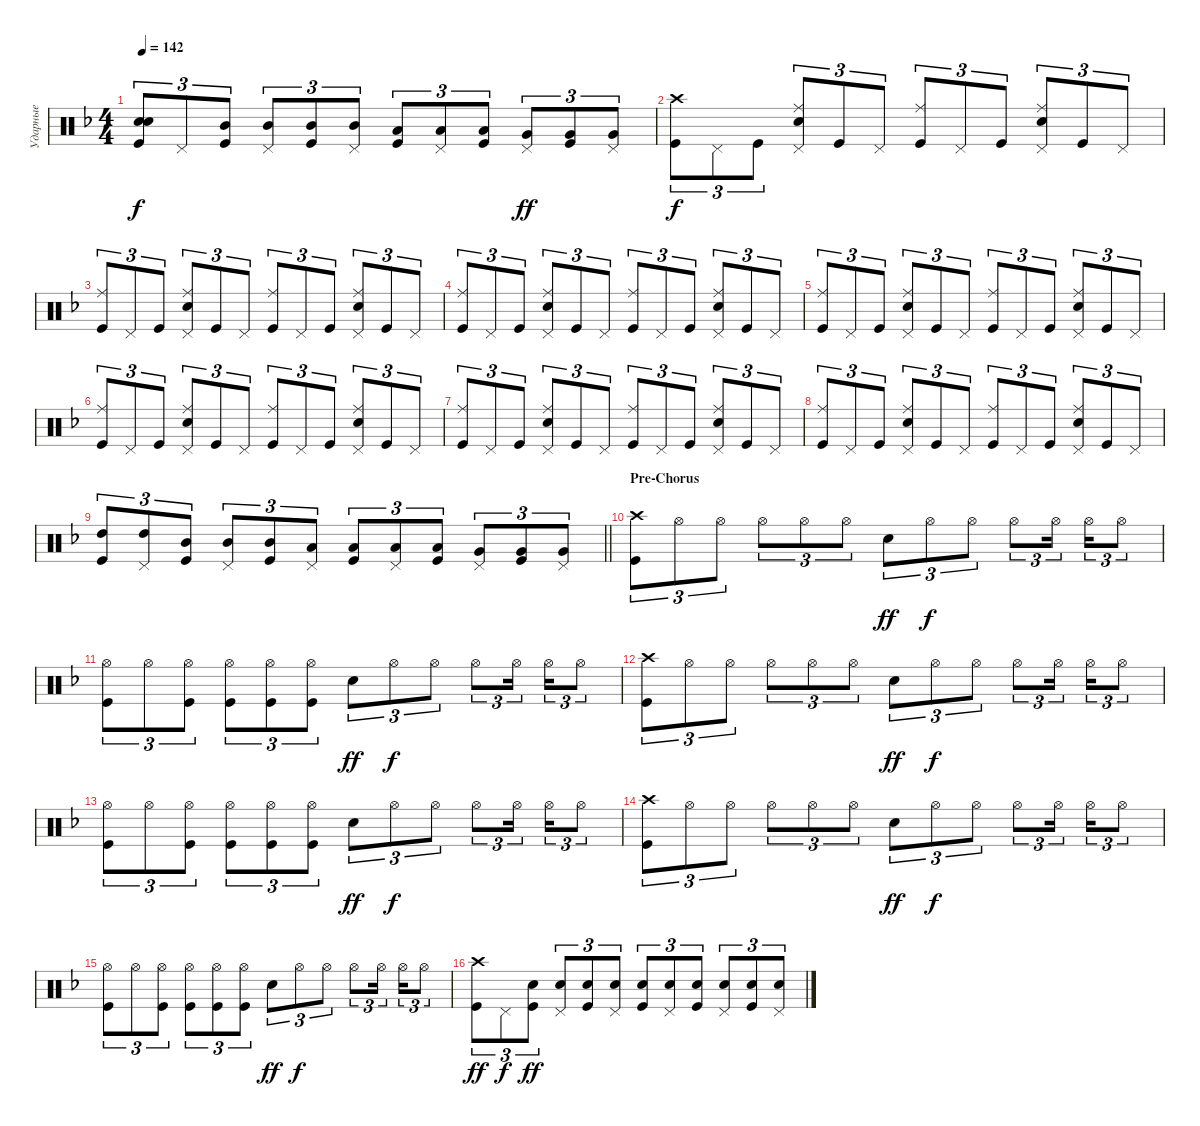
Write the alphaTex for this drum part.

\track ("Ударные" "Ударные") {instrument percussion}
\staff {score}
\articulation defaults
\ts (4 4)
\tempo 142
\clef neutral
\ks dminor
("Snare (hit) 2" "Snare (hit) 2" "Kick (hit)").8{tu (3 2) bd 240 dy f} "Pedal Hi-Hat (hit)".8{tu (3 2)} ("Mid Tom (hit)" "Kick (hit)").8{tu (3 2)} ("Pedal Hi-Hat (hit)" "Mid Tom (hit)").8{tu (3 2)} ("Mid Tom (hit)" "Kick (hit)").8{tu (3 2)} ("Mid Tom (hit)" "Pedal Hi-Hat (hit)").8{tu (3 2)} ("Low Tom (hit)" "Kick (hit)").8{tu (3 2)} ("Low Tom (hit)" "Pedal Hi-Hat (hit)").8{tu (3 2)} ("Low Tom (hit)" "Kick (hit)").8{tu (3 2)} ("Very Low Tom (hit)" "Pedal Hi-Hat (hit)").8{tu (3 2) dy ff} ("Very Low Tom (hit)" "Kick (hit)").8{tu (3 2)} ("Very Low Tom (hit)" "Pedal Hi-Hat (hit)").8{tu (3 2)} |
("Kick (hit)" "Crash high (hit)").8{tu (3 2) dy f} "Pedal Hi-Hat (hit)".8{tu (3 2)} "Kick (hit)".8{tu (3 2)} ("Snare (hit) 2" "Ride (middle)" "Pedal Hi-Hat (hit)").8{tu (3 2)} "Kick (hit)".8{tu (3 2)} "Pedal Hi-Hat (hit)".8{tu (3 2)} ("Kick (hit)" "Ride (middle)").8{tu (3 2)} "Pedal Hi-Hat (hit)".8{tu (3 2)} "Kick (hit)".8{tu (3 2)} ("Snare (hit) 2" "Ride (middle)" "Pedal Hi-Hat (hit)").8{tu (3 2)} "Kick (hit)".8{tu (3 2)} "Pedal Hi-Hat (hit)".8{tu (3 2)} |
("Kick (hit)" "Ride (middle)").8{tu (3 2)} "Pedal Hi-Hat (hit)".8{tu (3 2)} "Kick (hit)".8{tu (3 2)} ("Snare (hit) 2" "Ride (middle)" "Pedal Hi-Hat (hit)").8{tu (3 2)} "Kick (hit)".8{tu (3 2)} "Pedal Hi-Hat (hit)".8{tu (3 2)} ("Kick (hit)" "Ride (middle)").8{tu (3 2)} "Pedal Hi-Hat (hit)".8{tu (3 2)} "Kick (hit)".8{tu (3 2)} ("Snare (hit) 2" "Ride (middle)" "Pedal Hi-Hat (hit)").8{tu (3 2)} "Kick (hit)".8{tu (3 2)} "Pedal Hi-Hat (hit)".8{tu (3 2)} |
("Kick (hit)" "Ride (middle)").8{tu (3 2)} "Pedal Hi-Hat (hit)".8{tu (3 2)} "Kick (hit)".8{tu (3 2)} ("Snare (hit) 2" "Ride (middle)" "Pedal Hi-Hat (hit)").8{tu (3 2)} "Kick (hit)".8{tu (3 2)} "Pedal Hi-Hat (hit)".8{tu (3 2)} ("Kick (hit)" "Ride (middle)").8{tu (3 2)} "Pedal Hi-Hat (hit)".8{tu (3 2)} "Kick (hit)".8{tu (3 2)} ("Snare (hit) 2" "Ride (middle)" "Pedal Hi-Hat (hit)").8{tu (3 2)} "Kick (hit)".8{tu (3 2)} "Pedal Hi-Hat (hit)".8{tu (3 2)} |
("Kick (hit)" "Ride (middle)").8{tu (3 2)} "Pedal Hi-Hat (hit)".8{tu (3 2)} "Kick (hit)".8{tu (3 2)} ("Snare (hit) 2" "Ride (middle)" "Pedal Hi-Hat (hit)").8{tu (3 2)} "Kick (hit)".8{tu (3 2)} "Pedal Hi-Hat (hit)".8{tu (3 2)} ("Kick (hit)" "Ride (middle)").8{tu (3 2)} "Pedal Hi-Hat (hit)".8{tu (3 2)} "Kick (hit)".8{tu (3 2)} ("Snare (hit) 2" "Ride (middle)" "Pedal Hi-Hat (hit)").8{tu (3 2)} "Kick (hit)".8{tu (3 2)} "Pedal Hi-Hat (hit)".8{tu (3 2)} |
("Kick (hit)" "Ride (middle)").8{tu (3 2)} "Pedal Hi-Hat (hit)".8{tu (3 2)} "Kick (hit)".8{tu (3 2)} ("Snare (hit) 2" "Ride (middle)" "Pedal Hi-Hat (hit)").8{tu (3 2)} "Kick (hit)".8{tu (3 2)} "Pedal Hi-Hat (hit)".8{tu (3 2)} ("Kick (hit)" "Ride (middle)").8{tu (3 2)} "Pedal Hi-Hat (hit)".8{tu (3 2)} "Kick (hit)".8{tu (3 2)} ("Snare (hit) 2" "Ride (middle)" "Pedal Hi-Hat (hit)").8{tu (3 2)} "Kick (hit)".8{tu (3 2)} "Pedal Hi-Hat (hit)".8{tu (3 2)} |
("Kick (hit)" "Ride (middle)").8{tu (3 2)} "Pedal Hi-Hat (hit)".8{tu (3 2)} "Kick (hit)".8{tu (3 2)} ("Snare (hit) 2" "Ride (middle)" "Pedal Hi-Hat (hit)").8{tu (3 2)} "Kick (hit)".8{tu (3 2)} "Pedal Hi-Hat (hit)".8{tu (3 2)} ("Kick (hit)" "Ride (middle)").8{tu (3 2)} "Pedal Hi-Hat (hit)".8{tu (3 2)} "Kick (hit)".8{tu (3 2)} ("Snare (hit) 2" "Ride (middle)" "Pedal Hi-Hat (hit)").8{tu (3 2)} "Kick (hit)".8{tu (3 2)} "Pedal Hi-Hat (hit)".8{tu (3 2)} |
("Kick (hit)" "Ride (middle)").8{tu (3 2)} "Pedal Hi-Hat (hit)".8{tu (3 2)} "Kick (hit)".8{tu (3 2)} ("Snare (hit) 2" "Ride (middle)" "Pedal Hi-Hat (hit)").8{tu (3 2)} "Kick (hit)".8{tu (3 2)} "Pedal Hi-Hat (hit)".8{tu (3 2)} ("Kick (hit)" "Ride (middle)").8{tu (3 2)} "Pedal Hi-Hat (hit)".8{tu (3 2)} "Kick (hit)".8{tu (3 2)} ("Snare (hit) 2" "Ride (middle)" "Pedal Hi-Hat (hit)").8{tu (3 2)} "Kick (hit)".8{tu (3 2)} "Pedal Hi-Hat (hit)".8{tu (3 2)} |
\barLineRight lightlight
("High Tom (hit)" "Kick (hit)").8{tu (3 2)} ("High Tom (hit)" "Pedal Hi-Hat (hit)").8{tu (3 2)} ("Mid Tom (hit)" "Kick (hit)").8{tu (3 2)} ("Mid Tom (hit)" "Pedal Hi-Hat (hit)").8{tu (3 2)} ("Mid Tom (hit)" "Kick (hit)").8{tu (3 2)} ("Low Tom (hit)" "Pedal Hi-Hat (hit)").8{tu (3 2)} ("Low Tom (hit)" "Kick (hit)").8{tu (3 2) bd 240} ("Low Tom (hit)" "Pedal Hi-Hat (hit)").8{tu (3 2)} ("Kick (hit)" "Low Tom (hit)").8{tu (3 2) bd 240} ("Very Low Tom (hit)" "Pedal Hi-Hat (hit)").8{tu (3 2)} ("Kick (hit)" "Very Low Tom (hit)").8{tu (3 2) bd 240} ("Pedal Hi-Hat (hit)" "Very Low Tom (hit)").8{tu (3 2)} |
\section ("" "Pre-Chorus")
("Kick (hit)" "Crash high (hit)").8{tu (3 2)} "Hi-Hat (open)".8{tu (3 2)} "Hi-Hat (open)".8{tu (3 2)} "Hi-Hat (open)".8{tu (3 2)} "Hi-Hat (open)".8{tu (3 2)} "Hi-Hat (open)".8{tu (3 2)} "Snare (hit) 2".8{tu (3 2) dy ff} "Hi-Hat (open)".8{tu (3 2) dy f} "Hi-Hat (open)".8{tu (3 2)} "Hi-Hat (open)".8{tu (3 2)} "Hi-Hat (open)".16{tu (3 2) beam splitsecondary} "Hi-Hat (open)".16{tu (3 2)} "Hi-Hat (open)".8{tu (3 2)} |
("Hi-Hat (open)" "Kick (hit)").8{tu (3 2)} "Hi-Hat (open)".8{tu (3 2)} ("Hi-Hat (open)" "Kick (hit)").8{tu (3 2)} ("Hi-Hat (open)" "Kick (hit)").8{tu (3 2)} ("Hi-Hat (open)" "Kick (hit)").8{tu (3 2)} ("Hi-Hat (open)" "Kick (hit)").8{tu (3 2)} "Snare (hit) 2".8{tu (3 2) dy ff} "Hi-Hat (open)".8{tu (3 2) dy f} "Hi-Hat (open)".8{tu (3 2)} "Hi-Hat (open)".8{tu (3 2)} "Hi-Hat (open)".16{tu (3 2) beam splitsecondary} "Hi-Hat (open)".16{tu (3 2)} "Hi-Hat (open)".8{tu (3 2)} |
("Kick (hit)" "Crash high (hit)").8{tu (3 2)} "Hi-Hat (open)".8{tu (3 2)} "Hi-Hat (open)".8{tu (3 2)} "Hi-Hat (open)".8{tu (3 2)} "Hi-Hat (open)".8{tu (3 2)} "Hi-Hat (open)".8{tu (3 2)} "Snare (hit) 2".8{tu (3 2) dy ff} "Hi-Hat (open)".8{tu (3 2) dy f} "Hi-Hat (open)".8{tu (3 2)} "Hi-Hat (open)".8{tu (3 2)} "Hi-Hat (open)".16{tu (3 2) beam splitsecondary} "Hi-Hat (open)".16{tu (3 2)} "Hi-Hat (open)".8{tu (3 2)} |
("Hi-Hat (open)" "Kick (hit)").8{tu (3 2)} "Hi-Hat (open)".8{tu (3 2)} ("Hi-Hat (open)" "Kick (hit)").8{tu (3 2)} ("Hi-Hat (open)" "Kick (hit)").8{tu (3 2)} ("Hi-Hat (open)" "Kick (hit)").8{tu (3 2)} ("Hi-Hat (open)" "Kick (hit)").8{tu (3 2)} "Snare (hit) 2".8{tu (3 2) dy ff} "Hi-Hat (open)".8{tu (3 2) dy f} "Hi-Hat (open)".8{tu (3 2)} "Hi-Hat (open)".8{tu (3 2)} "Hi-Hat (open)".16{tu (3 2) beam splitsecondary} "Hi-Hat (open)".16{tu (3 2)} "Hi-Hat (open)".8{tu (3 2)} |
("Kick (hit)" "Crash high (hit)").8{tu (3 2)} "Hi-Hat (open)".8{tu (3 2)} "Hi-Hat (open)".8{tu (3 2)} "Hi-Hat (open)".8{tu (3 2)} "Hi-Hat (open)".8{tu (3 2)} "Hi-Hat (open)".8{tu (3 2)} "Snare (hit) 2".8{tu (3 2) dy ff} "Hi-Hat (open)".8{tu (3 2) dy f} "Hi-Hat (open)".8{tu (3 2)} "Hi-Hat (open)".8{tu (3 2)} "Hi-Hat (open)".16{tu (3 2) beam splitsecondary} "Hi-Hat (open)".16{tu (3 2)} "Hi-Hat (open)".8{tu (3 2)} |
("Hi-Hat (open)" "Kick (hit)").8{tu (3 2)} "Hi-Hat (open)".8{tu (3 2)} ("Hi-Hat (open)" "Kick (hit)").8{tu (3 2)} ("Hi-Hat (open)" "Kick (hit)").8{tu (3 2)} ("Hi-Hat (open)" "Kick (hit)").8{tu (3 2)} ("Hi-Hat (open)" "Kick (hit)").8{tu (3 2)} "Snare (hit) 2".8{tu (3 2) dy ff} "Hi-Hat (open)".8{tu (3 2) dy f} "Hi-Hat (open)".8{tu (3 2)} "Hi-Hat (open)".8{tu (3 2)} "Hi-Hat (open)".16{tu (3 2) beam splitsecondary} "Hi-Hat (open)".16{tu (3 2)} "Hi-Hat (open)".8{tu (3 2)} |
("Kick (hit)" "Crash high (hit)").8{tu (3 2) dy ff} "Pedal Hi-Hat (hit)".8{tu (3 2) dy f} ("Snare (hit) 2" "Kick (hit)").8{tu (3 2) dy ff} ("Snare (hit) 2" "Pedal Hi-Hat (hit)").8{tu (3 2)} ("Kick (hit)" "Snare (hit) 2").8{tu (3 2)} ("Snare (hit) 2" "Pedal Hi-Hat (hit)").8{tu (3 2)} ("Kick (hit)" "Snare (hit) 2").8{tu (3 2)} ("Snare (hit) 2" "Pedal Hi-Hat (hit)").8{tu (3 2)} ("Snare (hit) 2" "Kick (hit)").8{tu (3 2)} ("Snare (hit) 2" "Pedal Hi-Hat (hit)").8{tu (3 2)} ("Snare (hit) 2" "Kick (hit)").8{tu (3 2)} ("Snare (hit) 2" "Pedal Hi-Hat (hit)").8{tu (3 2)}
